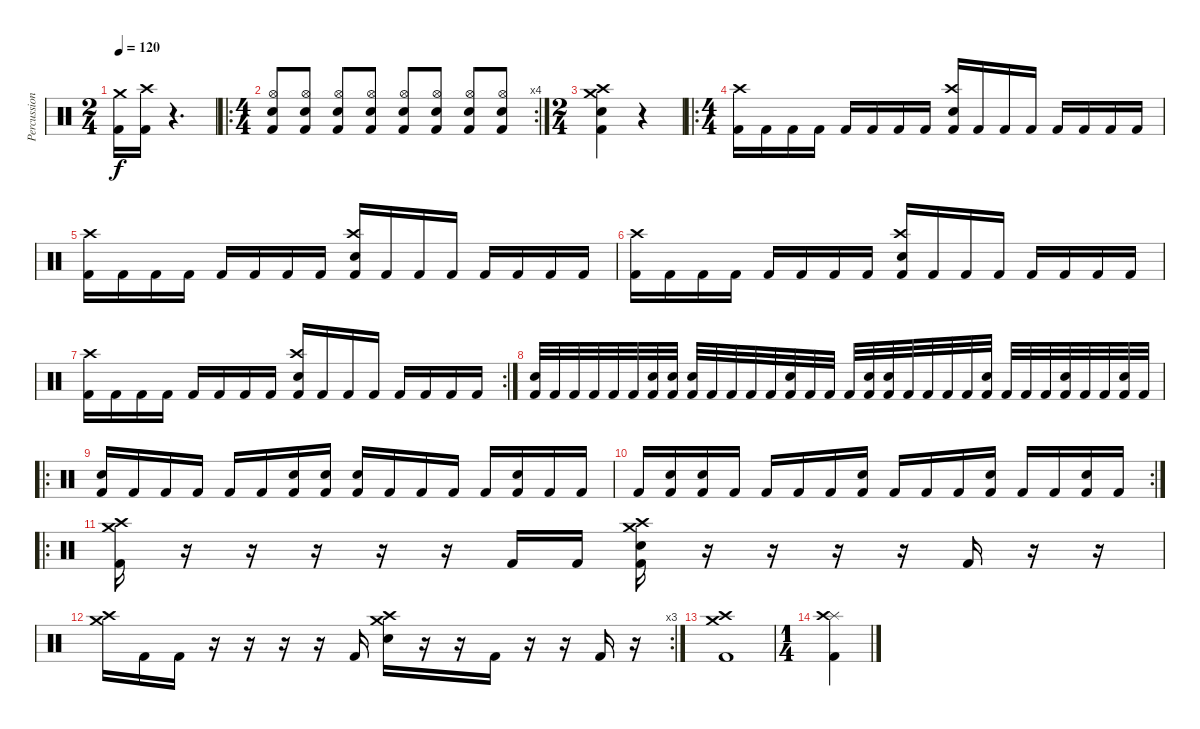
\track ("Percussion" "Percussion") {instrument percussion}
\staff {score}
\articulation defaults
\ts (2 4)
\tempo 120
\clef neutral
\ks c
("Crash medium (hit)" "Kick (hit) 2").16{dy f} ("Crash high (hit)" "Kick (hit) 2").16 r.4{d} |
\ro
\rc 4
\ts (4 4)
("Hi-Hat (open)" "Snare (hit) 2" "Kick (hit) 2").8 ("Hi-Hat (open)" "Snare (hit) 2" "Kick (hit) 2").8 ("Hi-Hat (open)" "Snare (hit) 2" "Kick (hit) 2").8 ("Hi-Hat (open)" "Snare (hit) 2" "Kick (hit) 2").8 ("Hi-Hat (open)" "Snare (hit) 2" "Kick (hit) 2").8 ("Hi-Hat (open)" "Snare (hit) 2" "Kick (hit) 2").8 ("Hi-Hat (open)" "Snare (hit) 2" "Kick (hit) 2").8 ("Hi-Hat (open)" "Snare (hit) 2" "Kick (hit) 2").8 |
\ts (2 4)
("Crash high (hit)" "Crash medium (hit)" "Snare (hit) 2" "Kick (hit) 2").4 r.4 |
\ro
\ts (4 4)
("Crash high (hit)" "Kick (hit) 2").16 "Kick (hit) 2".16 "Kick (hit) 2".16 "Kick (hit) 2".16 "Kick (hit) 2".16 "Kick (hit) 2".16 "Kick (hit) 2".16 "Kick (hit) 2".16 ("Crash high (hit)" "Snare (hit) 2" "Kick (hit) 2").16 "Kick (hit) 2".16 "Kick (hit) 2".16 "Kick (hit) 2".16 "Kick (hit) 2".16 "Kick (hit) 2".16 "Kick (hit) 2".16 "Kick (hit) 2".16 |
("Crash high (hit)" "Kick (hit) 2").16 "Kick (hit) 2".16 "Kick (hit) 2".16 "Kick (hit) 2".16 "Kick (hit) 2".16 "Kick (hit) 2".16 "Kick (hit) 2".16 "Kick (hit) 2".16 ("Crash high (hit)" "Snare (hit) 2" "Kick (hit) 2").16 "Kick (hit) 2".16 "Kick (hit) 2".16 "Kick (hit) 2".16 "Kick (hit) 2".16 "Kick (hit) 2".16 "Kick (hit) 2".16 "Kick (hit) 2".16 |
("Crash high (hit)" "Kick (hit) 2").16 "Kick (hit) 2".16 "Kick (hit) 2".16 "Kick (hit) 2".16 "Kick (hit) 2".16 "Kick (hit) 2".16 "Kick (hit) 2".16 "Kick (hit) 2".16 ("Crash high (hit)" "Snare (hit) 2" "Kick (hit) 2").16 "Kick (hit) 2".16 "Kick (hit) 2".16 "Kick (hit) 2".16 "Kick (hit) 2".16 "Kick (hit) 2".16 "Kick (hit) 2".16 "Kick (hit) 2".16 |
\rc 2
("Crash high (hit)" "Kick (hit) 2").16 "Kick (hit) 2".16 "Kick (hit) 2".16 "Kick (hit) 2".16 "Kick (hit) 2".16 "Kick (hit) 2".16 "Kick (hit) 2".16 "Kick (hit) 2".16 ("Crash high (hit)" "Snare (hit) 2" "Kick (hit) 2").16 "Kick (hit) 2".16 "Kick (hit) 2".16 "Kick (hit) 2".16 "Kick (hit) 2".16 "Kick (hit) 2".16 "Kick (hit) 2".16 "Kick (hit) 2".16 |
("Snare (hit) 2" "Kick (hit) 2").32 "Kick (hit) 2".32 "Kick (hit) 2".32 "Kick (hit) 2".32 "Kick (hit) 2".32 "Kick (hit) 2".32 ("Snare (hit) 2" "Kick (hit) 2").32 ("Snare (hit) 2" "Kick (hit) 2").32 ("Snare (hit) 2" "Kick (hit) 2").32 "Kick (hit) 2".32 "Kick (hit) 2".32 "Kick (hit) 2".32 "Kick (hit) 2".32 ("Snare (hit) 2" "Kick (hit) 2").32 "Kick (hit) 2".32 "Kick (hit) 2".32 "Kick (hit) 2".32 ("Snare (hit) 2" "Kick (hit) 2").32 ("Snare (hit) 2" "Kick (hit) 2").32 "Kick (hit) 2".32 "Kick (hit) 2".32 "Kick (hit) 2".32 "Kick (hit) 2".32 ("Snare (hit) 2" "Kick (hit) 2").32 "Kick (hit) 2".32 "Kick (hit) 2".32 "Kick (hit) 2".32 ("Snare (hit) 2" "Kick (hit) 2").32 "Kick (hit) 2".32 "Kick (hit) 2".32 ("Snare (hit) 2" "Kick (hit) 2").32 "Kick (hit) 2".32 |
\ro
("Snare (hit) 2" "Kick (hit) 2").16 "Kick (hit) 2".16 "Kick (hit) 2".16 "Kick (hit) 2".16 "Kick (hit) 2".16 "Kick (hit) 2".16 ("Snare (hit) 2" "Kick (hit) 2").16 ("Snare (hit) 2" "Kick (hit) 2").16 ("Snare (hit) 2" "Kick (hit) 2").16 "Kick (hit) 2".16 "Kick (hit) 2".16 "Kick (hit) 2".16 "Kick (hit) 2".16 ("Snare (hit) 2" "Kick (hit) 2").16 "Kick (hit) 2".16 "Kick (hit) 2".16 |
\rc 2 "Kick (hit) 2".16
("Snare (hit) 2" "Kick (hit) 2").16 ("Snare (hit) 2" "Kick (hit) 2").16 "Kick (hit) 2".16 "Kick (hit) 2".16 "Kick (hit) 2".16 "Kick (hit) 2".16 ("Snare (hit) 2" "Kick (hit) 2").16 "Kick (hit) 2".16 "Kick (hit) 2".16 "Kick (hit) 2".16 ("Snare (hit) 2" "Kick (hit) 2").16 "Kick (hit) 2".16 "Kick (hit) 2".16 ("Snare (hit) 2" "Kick (hit) 2").16 "Kick (hit) 2".16 |
\ro
("Crash high (hit)" "Crash medium (hit)" "Kick (hit) 2").16 r.16 r.16 r.16 r.16 r.16 "Kick (hit) 2".16 "Kick (hit) 2".16 ("Crash high (hit)" "Crash medium (hit)" "Snare (hit) 2" "Kick (hit) 2").16 r.16 r.16 r.16 r.16 "Kick (hit) 2".16 r.16 r.16 |
\rc 3
("Crash high (hit)" "Crash medium (hit)").16 "Kick (hit) 2".16 "Kick (hit) 2".16 r.16 r.16 r.16 r.16 "Kick (hit) 2".16 ("Crash high (hit)" "Crash medium (hit)" "Snare (hit) 2").16 r.16 r.16 "Kick (hit) 2".16 r.16 r.16 "Kick (hit) 2".16 r.16 |
("Crash high (hit)" "Crash medium (hit)" "Kick (hit) 2").1 |
\ts (1 4)
("Splash (hit)" "Crash high (hit)" "Kick (hit) 2").4
